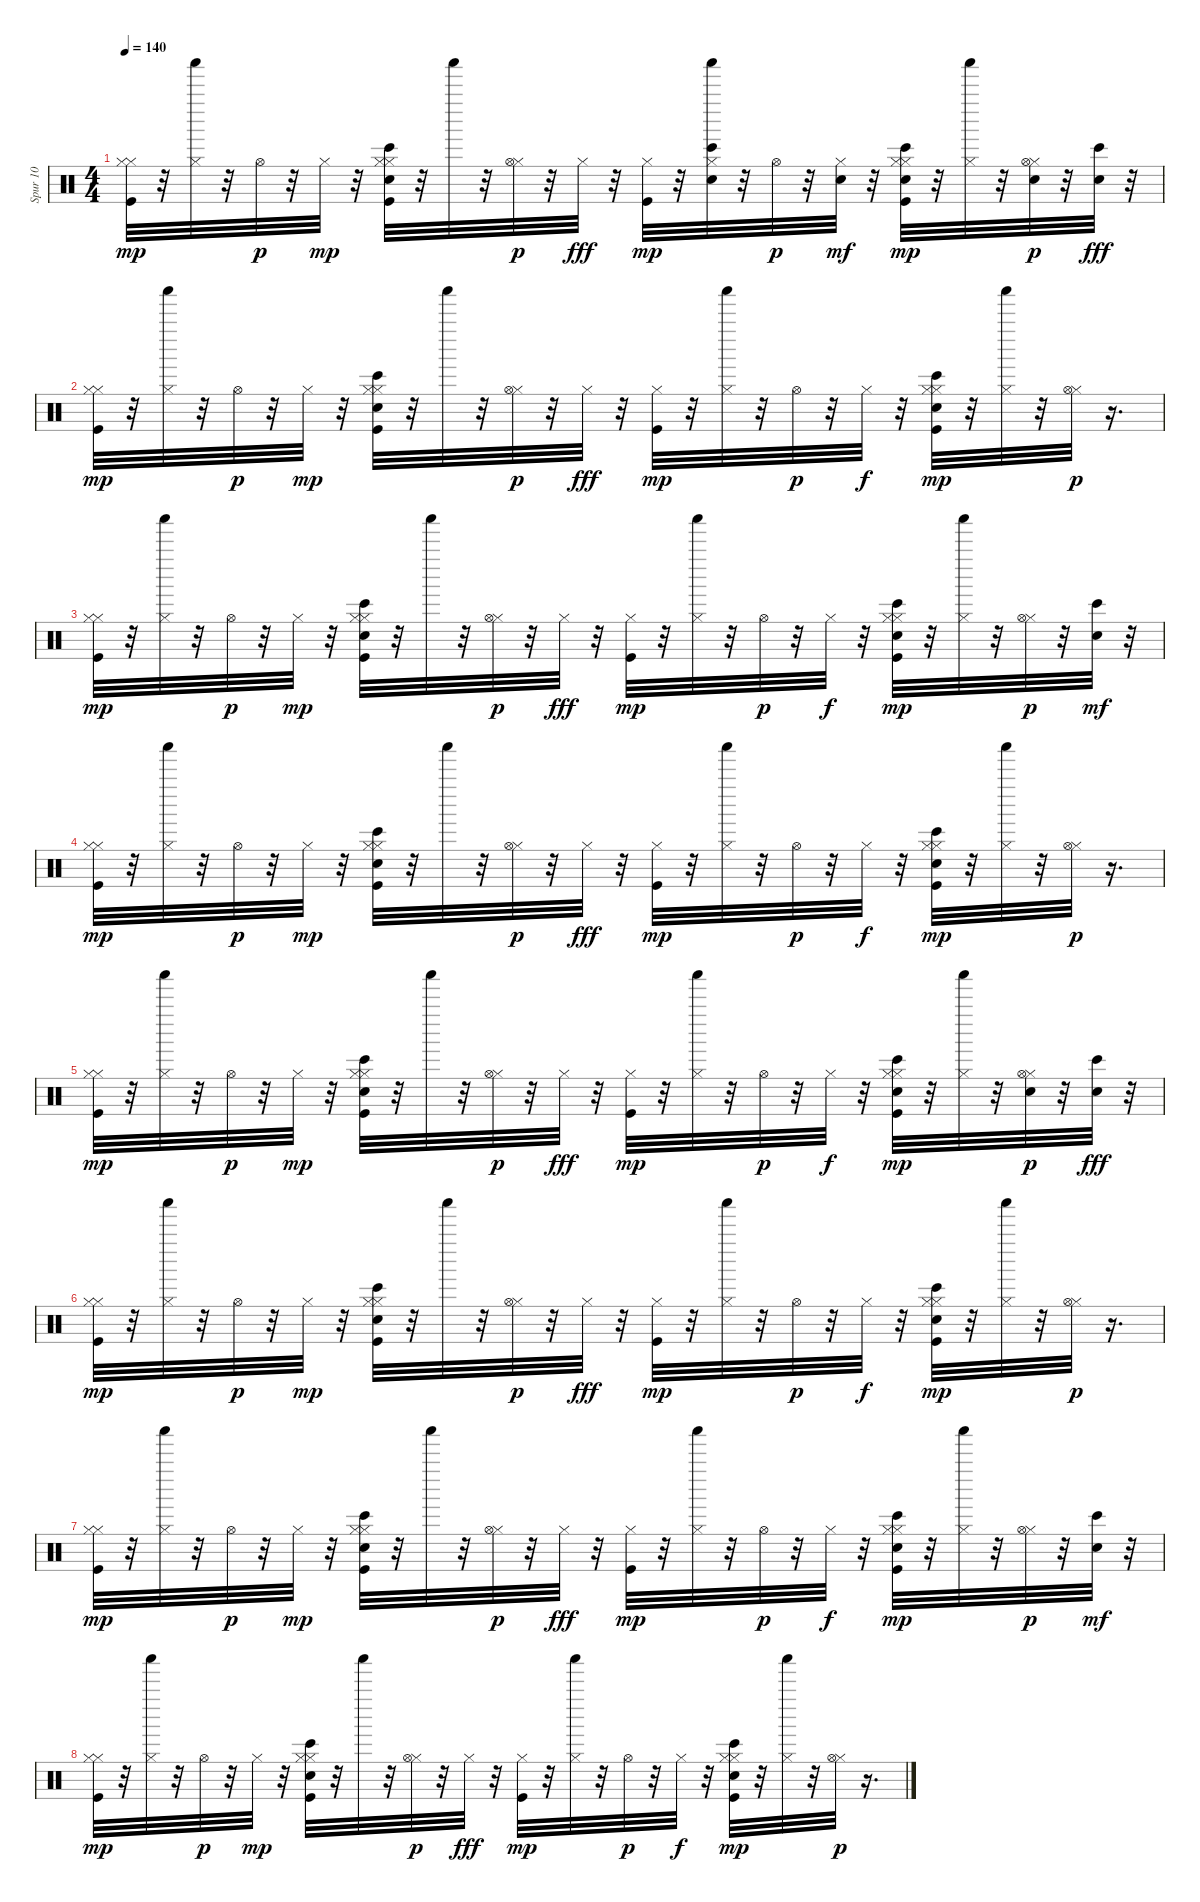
\track ("Spur 10" "Spur 10") {instrument percussion}
\staff {score}
\articulation defaults
\ts (4 4)
\tempo 140
\clef neutral
\ks c
("Hi-Hat (closed)" "Kick (hit)" "Hi-Hat (closed)").32{dy mp} r.32 ("Hi-Hat (closed)" "Shaker (hit)").32 r.32 "Hi-Hat (open)".32{dy p} r.32 "Hi-Hat (closed)".32{dy mp} r.32 ("Hi-Hat (closed)" "Kick (hit)" "Bongo High (hit)" "Electric Snare (hit)" "Hi-Hat (closed)").32 r.32 "Shaker (hit)".32 r.32 ("Hi-Hat (closed)" "Hi-Hat (open)").32{dy p} r.32 "Hi-Hat (closed)".32{dy fff} r.32 ("Kick (hit)" "Hi-Hat (closed)").32{dy mp} r.32 ("Hi-Hat (closed)" "Shaker (hit)" "Electric Snare (hit)" "Bongo High (hit)").32 r.32 "Hi-Hat (open)".32{dy p} r.32 ("Hi-Hat (closed)" "Snare (hit) 2").32{dy mf} r.32 ("Hi-Hat (closed)" "Kick (hit)" "Bongo High (hit)" "Electric Snare (hit)" "Hi-Hat (closed)").32{dy mp} r.32 ("Hi-Hat (closed)" "Shaker (hit)").32 r.32 ("Hi-Hat (closed)" "Snare (hit) 2" "Hi-Hat (open)").32{dy p} r.32 ("Bongo High (hit)" "Electric Snare (hit)").32{dy fff} r.32 |
("Hi-Hat (closed)" "Kick (hit)" "Hi-Hat (closed)").32{dy mp} r.32 ("Hi-Hat (closed)" "Shaker (hit)").32 r.32 "Hi-Hat (open)".32{dy p} r.32 "Hi-Hat (closed)".32{dy mp} r.32 ("Hi-Hat (closed)" "Kick (hit)" "Bongo High (hit)" "Electric Snare (hit)" "Hi-Hat (closed)").32 r.32 "Shaker (hit)".32 r.32 ("Hi-Hat (closed)" "Hi-Hat (open)").32{dy p} r.32 "Hi-Hat (closed)".32{dy fff} r.32 ("Kick (hit)" "Hi-Hat (closed)").32{dy mp} r.32 ("Hi-Hat (closed)" "Shaker (hit)").32 r.32 "Hi-Hat (open)".32{dy p} r.32 "Hi-Hat (closed)".32{dy f} r.32 ("Hi-Hat (closed)" "Kick (hit)" "Bongo High (hit)" "Electric Snare (hit)" "Hi-Hat (closed)").32{dy mp} r.32 ("Hi-Hat (closed)" "Shaker (hit)").32 r.32 ("Hi-Hat (closed)" "Hi-Hat (open)").32{dy p} r.16{d} |
("Hi-Hat (closed)" "Kick (hit)" "Hi-Hat (closed)").32{dy mp} r.32 ("Hi-Hat (closed)" "Shaker (hit)").32 r.32 "Hi-Hat (open)".32{dy p} r.32 "Hi-Hat (closed)".32{dy mp} r.32 ("Hi-Hat (closed)" "Kick (hit)" "Bongo High (hit)" "Electric Snare (hit)" "Hi-Hat (closed)").32 r.32 "Shaker (hit)".32 r.32 ("Hi-Hat (closed)" "Hi-Hat (open)").32{dy p} r.32 "Hi-Hat (closed)".32{dy fff} r.32 ("Kick (hit)" "Hi-Hat (closed)").32{dy mp} r.32 ("Hi-Hat (closed)" "Shaker (hit)").32 r.32 "Hi-Hat (open)".32{dy p} r.32 "Hi-Hat (closed)".32{dy f} r.32 ("Hi-Hat (closed)" "Kick (hit)" "Bongo High (hit)" "Electric Snare (hit)" "Hi-Hat (closed)").32{dy mp} r.32 ("Hi-Hat (closed)" "Shaker (hit)").32 r.32 ("Hi-Hat (closed)" "Hi-Hat (open)").32{dy p} r.32 ("Bongo High (hit)" "Electric Snare (hit)").32{dy mf} r.32 |
("Hi-Hat (closed)" "Kick (hit)" "Hi-Hat (closed)").32{dy mp} r.32 ("Hi-Hat (closed)" "Shaker (hit)").32 r.32 "Hi-Hat (open)".32{dy p} r.32 "Hi-Hat (closed)".32{dy mp} r.32 ("Hi-Hat (closed)" "Kick (hit)" "Bongo High (hit)" "Electric Snare (hit)" "Hi-Hat (closed)").32 r.32 "Shaker (hit)".32 r.32 ("Hi-Hat (closed)" "Hi-Hat (open)").32{dy p} r.32 "Hi-Hat (closed)".32{dy fff} r.32 ("Kick (hit)" "Hi-Hat (closed)").32{dy mp} r.32 ("Hi-Hat (closed)" "Shaker (hit)").32 r.32 "Hi-Hat (open)".32{dy p} r.32 "Hi-Hat (closed)".32{dy f} r.32 ("Hi-Hat (closed)" "Kick (hit)" "Bongo High (hit)" "Electric Snare (hit)" "Hi-Hat (closed)").32{dy mp} r.32 ("Hi-Hat (closed)" "Shaker (hit)").32 r.32 ("Hi-Hat (closed)" "Hi-Hat (open)").32{dy p} r.16{d} |
("Hi-Hat (closed)" "Kick (hit)" "Hi-Hat (closed)").32{dy mp} r.32 ("Hi-Hat (closed)" "Shaker (hit)").32 r.32 "Hi-Hat (open)".32{dy p} r.32 "Hi-Hat (closed)".32{dy mp} r.32 ("Hi-Hat (closed)" "Kick (hit)" "Bongo High (hit)" "Electric Snare (hit)" "Hi-Hat (closed)").32 r.32 "Shaker (hit)".32 r.32 ("Hi-Hat (closed)" "Hi-Hat (open)").32{dy p} r.32 "Hi-Hat (closed)".32{dy fff} r.32 ("Kick (hit)" "Hi-Hat (closed)").32{dy mp} r.32 ("Hi-Hat (closed)" "Shaker (hit)").32 r.32 "Hi-Hat (open)".32{dy p} r.32 "Hi-Hat (closed)".32{dy f} r.32 ("Hi-Hat (closed)" "Kick (hit)" "Bongo High (hit)" "Electric Snare (hit)" "Hi-Hat (closed)").32{dy mp} r.32 ("Hi-Hat (closed)" "Shaker (hit)").32 r.32 ("Electric Snare (hit)" "Hi-Hat (closed)" "Hi-Hat (open)").32{dy p} r.32 ("Bongo High (hit)" "Electric Snare (hit)").32{dy fff} r.32 |
("Hi-Hat (closed)" "Kick (hit)" "Hi-Hat (closed)").32{dy mp} r.32 ("Hi-Hat (closed)" "Shaker (hit)").32 r.32 "Hi-Hat (open)".32{dy p} r.32 "Hi-Hat (closed)".32{dy mp} r.32 ("Hi-Hat (closed)" "Kick (hit)" "Bongo High (hit)" "Electric Snare (hit)" "Hi-Hat (closed)").32 r.32 "Shaker (hit)".32 r.32 ("Hi-Hat (closed)" "Hi-Hat (open)").32{dy p} r.32 "Hi-Hat (closed)".32{dy fff} r.32 ("Kick (hit)" "Hi-Hat (closed)").32{dy mp} r.32 ("Hi-Hat (closed)" "Shaker (hit)").32 r.32 "Hi-Hat (open)".32{dy p} r.32 "Hi-Hat (closed)".32{dy f} r.32 ("Hi-Hat (closed)" "Kick (hit)" "Bongo High (hit)" "Electric Snare (hit)" "Hi-Hat (closed)").32{dy mp} r.32 ("Hi-Hat (closed)" "Shaker (hit)").32 r.32 ("Hi-Hat (closed)" "Hi-Hat (open)").32{dy p} r.16{d} |
("Hi-Hat (closed)" "Kick (hit)" "Hi-Hat (closed)").32{dy mp} r.32 ("Hi-Hat (closed)" "Shaker (hit)").32 r.32 "Hi-Hat (open)".32{dy p} r.32 "Hi-Hat (closed)".32{dy mp} r.32 ("Electric Snare (hit)" "Hi-Hat (closed)" "Kick (hit)" "Bongo High (hit)" "Hi-Hat (closed)").32 r.32 "Shaker (hit)".32 r.32 ("Hi-Hat (closed)" "Hi-Hat (open)").32{dy p} r.32 "Hi-Hat (closed)".32{dy fff} r.32 ("Kick (hit)" "Hi-Hat (closed)").32{dy mp} r.32 ("Hi-Hat (closed)" "Shaker (hit)").32 r.32 "Hi-Hat (open)".32{dy p} r.32 "Hi-Hat (closed)".32{dy f} r.32 ("Hi-Hat (closed)" "Kick (hit)" "Bongo High (hit)" "Electric Snare (hit)" "Hi-Hat (closed)").32{dy mp} r.32 ("Hi-Hat (closed)" "Shaker (hit)").32 r.32 ("Hi-Hat (closed)" "Hi-Hat (open)").32{dy p} r.32 ("Bongo High (hit)" "Electric Snare (hit)").32{dy mf} r.32 |
("Hi-Hat (closed)" "Kick (hit)" "Hi-Hat (closed)").32{dy mp} r.32 ("Hi-Hat (closed)" "Shaker (hit)").32 r.32 "Hi-Hat (open)".32{dy p} r.32 "Hi-Hat (closed)".32{dy mp} r.32 ("Electric Snare (hit)" "Hi-Hat (closed)" "Kick (hit)" "Bongo High (hit)" "Hi-Hat (closed)").32 r.32 "Shaker (hit)".32 r.32 ("Hi-Hat (closed)" "Hi-Hat (open)").32{dy p} r.32 "Hi-Hat (closed)".32{dy fff} r.32 ("Kick (hit)" "Hi-Hat (closed)").32{dy mp} r.32 ("Hi-Hat (closed)" "Shaker (hit)").32 r.32 "Hi-Hat (open)".32{dy p} r.32 "Hi-Hat (closed)".32{dy f} r.32 ("Hi-Hat (closed)" "Kick (hit)" "Bongo High (hit)" "Electric Snare (hit)" "Hi-Hat (closed)").32{dy mp} r.32 ("Hi-Hat (closed)" "Shaker (hit)").32 r.32 ("Hi-Hat (closed)" "Hi-Hat (open)").32{dy p} r.16{d}
